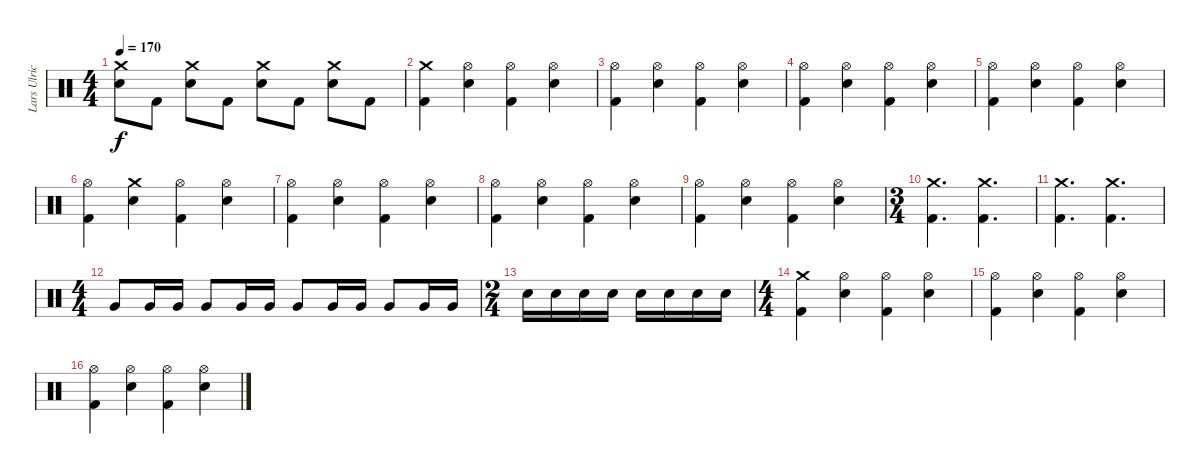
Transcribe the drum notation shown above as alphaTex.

\track ("Lars Ulrich" "Lars Ulric") {instrument percussion}
\staff {score}
\articulation defaults
\ts (4 4)
\tempo 170
\clef neutral
\ks c
("Crash medium (hit)" "Electric Snare (hit)").8{dy f} "Kick (hit) 2".8 ("Crash medium (hit)" "Electric Snare (hit)").8 "Kick (hit) 2".8 ("Crash medium (hit)" "Electric Snare (hit)").8 "Kick (hit) 2".8 ("Crash medium (hit)" "Electric Snare (hit)").8 "Kick (hit) 2".8 |
("Crash medium (hit)" "Kick (hit) 2").4 ("Hi-Hat (open)" "Electric Snare (hit)").4 ("Hi-Hat (open)" "Kick (hit) 2").4 ("Hi-Hat (open)" "Electric Snare (hit)").4 |
("Hi-Hat (open)" "Kick (hit) 2").4 ("Hi-Hat (open)" "Electric Snare (hit)").4 ("Hi-Hat (open)" "Kick (hit) 2").4 ("Hi-Hat (open)" "Electric Snare (hit)").4 |
("Hi-Hat (open)" "Kick (hit) 2").4 ("Hi-Hat (open)" "Electric Snare (hit)").4 ("Hi-Hat (open)" "Kick (hit) 2").4 ("Hi-Hat (open)" "Electric Snare (hit)").4 |
("Hi-Hat (open)" "Kick (hit) 2").4 ("Hi-Hat (open)" "Electric Snare (hit)").4 ("Hi-Hat (open)" "Kick (hit) 2").4 ("Hi-Hat (open)" "Electric Snare (hit)").4 |
("Hi-Hat (open)" "Kick (hit) 2").4 ("Crash medium (hit)" "Electric Snare (hit)").4 ("Hi-Hat (open)" "Kick (hit) 2").4 ("Hi-Hat (open)" "Electric Snare (hit)").4 |
("Hi-Hat (open)" "Kick (hit) 2").4 ("Hi-Hat (open)" "Electric Snare (hit)").4 ("Hi-Hat (open)" "Kick (hit) 2").4 ("Hi-Hat (open)" "Electric Snare (hit)").4 |
("Hi-Hat (open)" "Kick (hit) 2").4 ("Hi-Hat (open)" "Electric Snare (hit)").4 ("Hi-Hat (open)" "Kick (hit) 2").4 ("Hi-Hat (open)" "Electric Snare (hit)").4 |
("Hi-Hat (open)" "Kick (hit) 2").4 ("Hi-Hat (open)" "Electric Snare (hit)").4 ("Hi-Hat (open)" "Kick (hit) 2").4 ("Hi-Hat (open)" "Electric Snare (hit)").4 |
\ts (3 4)
("Crash medium (hit)" "Kick (hit) 2").4{d} ("Crash medium (hit)" "Kick (hit) 2").4{d} |
("Crash medium (hit)" "Kick (hit) 2").4{d} ("Crash medium (hit)" "Kick (hit) 2").4{d} |
\ts (4 4)
"Very Low Tom (hit)".8 "Very Low Tom (hit)".16 "Very Low Tom (hit)".16 "Very Low Tom (hit)".8 "Very Low Tom (hit)".16 "Very Low Tom (hit)".16 "Very Low Tom (hit)".8 "Very Low Tom (hit)".16 "Very Low Tom (hit)".16 "Very Low Tom (hit)".8 "Very Low Tom (hit)".16 "Very Low Tom (hit)".16 |
\ts (2 4)
"Electric Snare (hit)".16 "Electric Snare (hit)".16 "Electric Snare (hit)".16 "Electric Snare (hit)".16 "Electric Snare (hit)".16 "Electric Snare (hit)".16 "Electric Snare (hit)".16 "Electric Snare (hit)".16 |
\ts (4 4)
("Crash medium (hit)" "Kick (hit) 2").4 ("Hi-Hat (open)" "Electric Snare (hit)").4 ("Hi-Hat (open)" "Kick (hit) 2").4 ("Hi-Hat (open)" "Electric Snare (hit)").4 |
("Hi-Hat (open)" "Kick (hit) 2").4 ("Hi-Hat (open)" "Electric Snare (hit)").4 ("Hi-Hat (open)" "Kick (hit) 2").4 ("Hi-Hat (open)" "Electric Snare (hit)").4 |
("Hi-Hat (open)" "Kick (hit) 2").4 ("Hi-Hat (open)" "Electric Snare (hit)").4 ("Hi-Hat (open)" "Kick (hit) 2").4 ("Hi-Hat (open)" "Electric Snare (hit)").4
